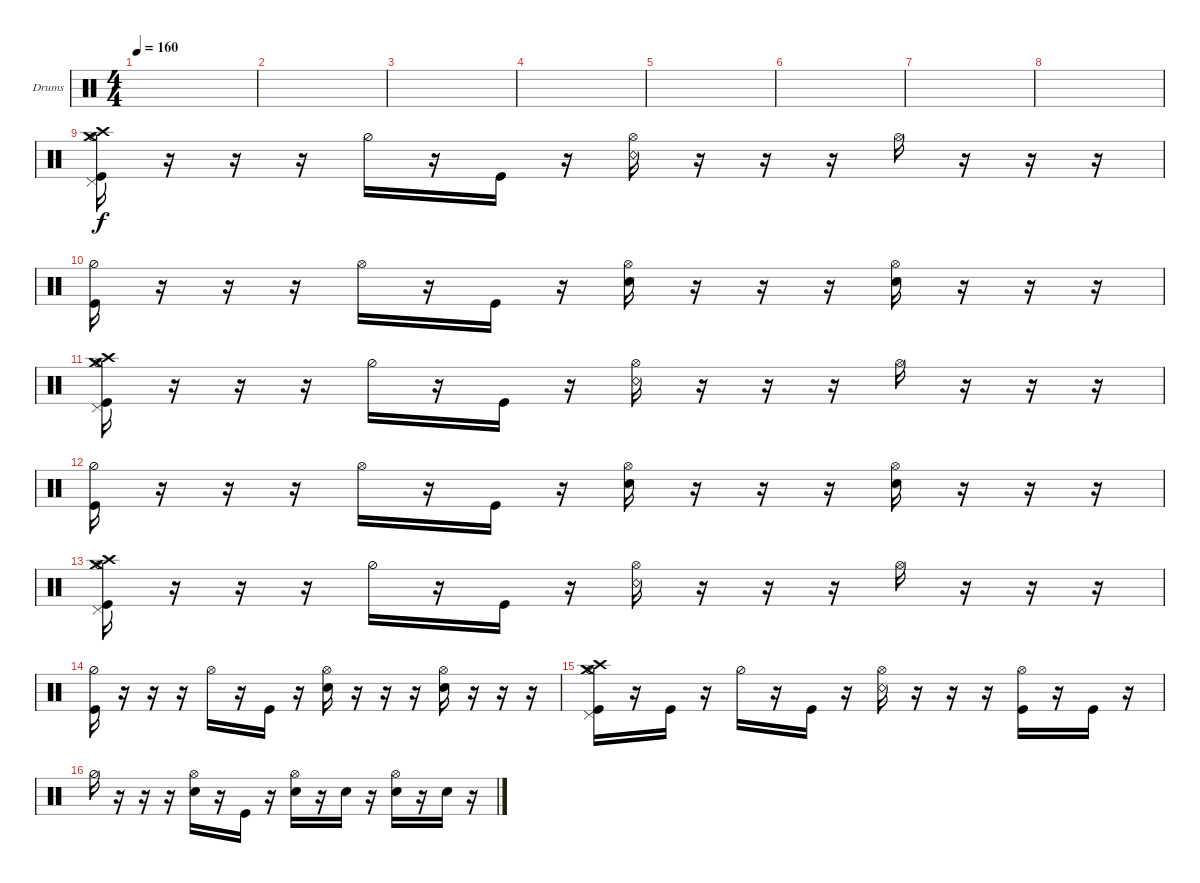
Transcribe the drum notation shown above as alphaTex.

\defaultSystemsLayout 4
\bracketExtendMode groupsimilarinstruments
\firstSystemTrackNameOrientation horizontal
\otherSystemsTrackNameOrientation horizontal
\track ("Drumkit" "Drums") {solo instrument percussion}
\staff {score}
\articulation defaults
\ts (4 4)
\tempo 160
\clef neutral
\ks c
|
|
|
|
|
|
|
|
("Pedal Hi-Hat (hit)" "Crash medium (hit)" "Kick (hit)" "Hi-Hat (half)" "Crash high (hit)").16 r.16 r.16 r.16 "Hi-Hat (half)".16 r.16 "Kick (hit)".16 r.16 ("Hi-Hat (open)" "Snare (rim shot)").16 r.16 r.16 r.16 "Hi-Hat (open)".16 r.16 r.16 r.16 |
("Kick (hit)" "Hi-Hat (half)").16 r.16 r.16 r.16 "Hi-Hat (open)".16 r.16 "Kick (hit)".16 r.16 ("Hi-Hat (open)" "Snare (hit) 2").16 r.16 r.16 r.16 ("Hi-Hat (open)" "Snare (hit) 2").16 r.16 r.16 r.16 |
("Pedal Hi-Hat (hit)" "Crash medium (hit)" "Kick (hit)" "Hi-Hat (half)" "Crash high (hit)").16 r.16 r.16 r.16 "Hi-Hat (half)".16 r.16 "Kick (hit)".16 r.16 ("Hi-Hat (open)" "Snare (rim shot)").16 r.16 r.16 r.16 "Hi-Hat (open)".16 r.16 r.16 r.16 |
("Kick (hit)" "Hi-Hat (half)").16 r.16 r.16 r.16 "Hi-Hat (open)".16 r.16 "Kick (hit)".16 r.16 ("Hi-Hat (open)" "Snare (hit) 2").16 r.16 r.16 r.16 ("Hi-Hat (open)" "Snare (hit) 2").16 r.16 r.16 r.16 |
("Pedal Hi-Hat (hit)" "Crash medium (hit)" "Kick (hit)" "Hi-Hat (half)" "Crash high (hit)").16 r.16 r.16 r.16 "Hi-Hat (half)".16 r.16 "Kick (hit)".16 r.16 ("Hi-Hat (open)" "Snare (rim shot)").16 r.16 r.16 r.16 "Hi-Hat (open)".16 r.16 r.16 r.16 |
("Kick (hit)" "Hi-Hat (half)").16 r.16 r.16 r.16 "Hi-Hat (open)".16 r.16 "Kick (hit)".16 r.16 ("Hi-Hat (open)" "Snare (hit) 2").16 r.16 r.16 r.16 ("Hi-Hat (open)" "Snare (hit) 2").16 r.16 r.16 r.16 |
("Pedal Hi-Hat (hit)" "Crash medium (hit)" "Kick (hit)" "Hi-Hat (half)" "Crash high (hit)").16 r.16 "Kick (hit)".16 r.16 "Hi-Hat (half)".16 r.16 "Kick (hit)".16 r.16 ("Hi-Hat (open)" "Snare (rim shot)").16 r.16 r.16 r.16 ("Hi-Hat (open)" "Kick (hit)").16 r.16 "Kick (hit)".16 r.16 |
"Hi-Hat (half)".16 r.16 r.16 r.16 ("Snare (hit) 2" "Hi-Hat (open)").16 r.16 "Kick (hit)".16 r.16 ("Hi-Hat (open)" "Snare (hit) 2").16 r.16 "Snare (hit) 2".16 r.16 ("Hi-Hat (open)" "Snare (hit) 2").16 r.16 "Snare (hit) 2".16 r.16
